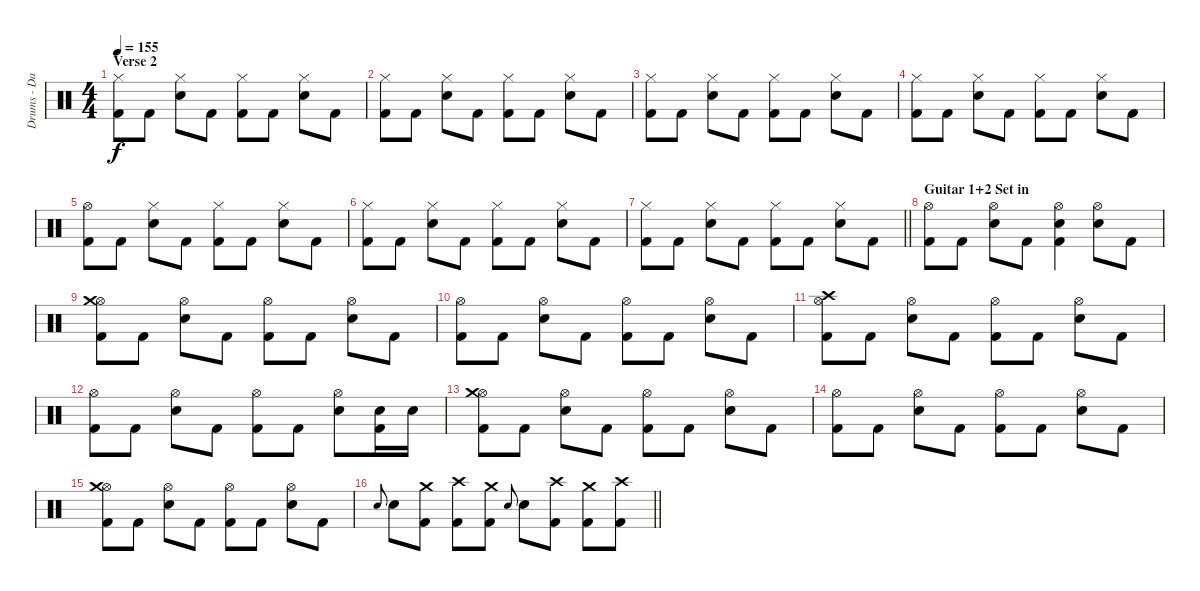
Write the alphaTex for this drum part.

\track ("Drums - Daniel Adair" "Drums - Da") {instrument percussion bank 1}
\staff {score}
\articulation defaults
\ts (4 4)
\section ("" "Verse 2")
\tempo 155
\clef neutral
\ks c
("Hi-Hat (closed)" "Kick (hit) 2").8{dy f} "Kick (hit) 2".8 ("Hi-Hat (closed)" "Snare (hit) 2").8 "Kick (hit) 2".8 ("Hi-Hat (closed)" "Kick (hit) 2").8 "Kick (hit) 2".8 ("Hi-Hat (closed)" "Snare (hit) 2").8 "Kick (hit) 2".8 |
("Hi-Hat (closed)" "Kick (hit) 2").8 "Kick (hit) 2".8 ("Hi-Hat (closed)" "Snare (hit) 2").8 "Kick (hit) 2".8 ("Hi-Hat (closed)" "Kick (hit) 2").8 "Kick (hit) 2".8 ("Hi-Hat (closed)" "Snare (hit) 2").8 "Kick (hit) 2".8 |
("Hi-Hat (closed)" "Kick (hit) 2").8 "Kick (hit) 2".8 ("Hi-Hat (closed)" "Snare (hit) 2").8 "Kick (hit) 2".8 ("Hi-Hat (closed)" "Kick (hit) 2").8 "Kick (hit) 2".8 ("Hi-Hat (closed)" "Snare (hit) 2").8 "Kick (hit) 2".8 |
("Hi-Hat (closed)" "Kick (hit) 2").8 "Kick (hit) 2".8 ("Hi-Hat (closed)" "Snare (hit) 2").8 "Kick (hit) 2".8 ("Hi-Hat (closed)" "Kick (hit) 2").8 "Kick (hit) 2".8 ("Hi-Hat (closed)" "Snare (hit) 2").8 "Kick (hit) 2".8 |
("Hi-Hat (open)" "Kick (hit) 2").8 "Kick (hit) 2".8 ("Hi-Hat (closed)" "Snare (hit) 2").8 "Kick (hit) 2".8 ("Hi-Hat (closed)" "Kick (hit) 2").8 "Kick (hit) 2".8 ("Hi-Hat (closed)" "Snare (hit) 2").8 "Kick (hit) 2".8 |
("Hi-Hat (closed)" "Kick (hit) 2").8 "Kick (hit) 2".8 ("Hi-Hat (closed)" "Snare (hit) 2").8 "Kick (hit) 2".8 ("Hi-Hat (closed)" "Kick (hit) 2").8 "Kick (hit) 2".8 ("Hi-Hat (closed)" "Snare (hit) 2").8 "Kick (hit) 2".8 |
\barLineRight lightlight
("Hi-Hat (closed)" "Kick (hit) 2").8 "Kick (hit) 2".8 ("Hi-Hat (closed)" "Snare (hit) 2").8 "Kick (hit) 2".8 ("Hi-Hat (closed)" "Kick (hit) 2").8 "Kick (hit) 2".8 ("Hi-Hat (closed)" "Snare (hit) 2").8 "Kick (hit) 2".8 |
\section ("" "Guitar 1+2 Set in")
("Hi-Hat (open)" "Kick (hit) 2").8 "Kick (hit) 2".8 ("Hi-Hat (open)" "Snare (hit) 2").8 "Kick (hit) 2".8 ("Hi-Hat (open)" "Snare (hit) 2" "Kick (hit) 2").4 ("Hi-Hat (open)" "Snare (hit) 2").8 "Kick (hit) 2".8 |
("Hi-Hat (open)" "Crash medium (hit)" "Kick (hit) 2").8 "Kick (hit) 2".8 ("Hi-Hat (open)" "Snare (hit) 2").8 "Kick (hit) 2".8 ("Hi-Hat (open)" "Kick (hit) 2").8 "Kick (hit) 2".8 ("Hi-Hat (open)" "Snare (hit) 2").8 "Kick (hit) 2".8 |
("Hi-Hat (open)" "Kick (hit) 2").8 "Kick (hit) 2".8 ("Hi-Hat (open)" "Snare (hit) 2").8 "Kick (hit) 2".8 ("Hi-Hat (open)" "Kick (hit) 2").8 "Kick (hit) 2".8 ("Hi-Hat (open)" "Snare (hit) 2").8 "Kick (hit) 2".8 |
("Hi-Hat (open)" "Crash high (hit)" "Kick (hit) 2").8 "Kick (hit) 2".8 ("Hi-Hat (open)" "Snare (hit) 2").8 "Kick (hit) 2".8 ("Hi-Hat (open)" "Kick (hit) 2").8 "Kick (hit) 2".8 ("Hi-Hat (open)" "Snare (hit) 2").8 "Kick (hit) 2".8 |
("Hi-Hat (open)" "Kick (hit) 2").8 "Kick (hit) 2".8 ("Hi-Hat (open)" "Snare (hit) 2").8 "Kick (hit) 2".8 ("Hi-Hat (open)" "Kick (hit) 2").8 "Kick (hit) 2".8 ("Hi-Hat (open)" "Snare (hit) 2").8 ("Snare (hit) 2" "Kick (hit) 2").16 "Snare (hit) 2".16 |
("Hi-Hat (open)" "Crash medium (hit)" "Kick (hit) 2").8 "Kick (hit) 2".8 ("Hi-Hat (open)" "Snare (hit) 2").8 "Kick (hit) 2".8 ("Hi-Hat (open)" "Kick (hit) 2").8 "Kick (hit) 2".8 ("Hi-Hat (open)" "Snare (hit) 2").8 "Kick (hit) 2".8 |
("Hi-Hat (open)" "Kick (hit) 2").8 "Kick (hit) 2".8 ("Hi-Hat (open)" "Snare (hit) 2").8 "Kick (hit) 2".8 ("Hi-Hat (open)" "Kick (hit) 2").8 "Kick (hit) 2".8 ("Hi-Hat (open)" "Snare (hit) 2").8 "Kick (hit) 2".8 |
("Hi-Hat (open)" "Crash medium (hit)" "Kick (hit) 2").8 "Kick (hit) 2".8 ("Hi-Hat (open)" "Snare (hit) 2").8 "Kick (hit) 2".8 ("Hi-Hat (open)" "Kick (hit) 2").8 "Kick (hit) 2".8 ("Hi-Hat (open)" "Snare (hit) 2").8 "Kick (hit) 2".8 |
\barLineRight lightlight "Snare (hit) 2".8{gr onbeat} "Snare (hit) 2".8
("Crash medium (hit)" "Kick (hit) 2").8 ("Crash high (hit)" "Kick (hit) 2").8 ("Crash medium (hit)" "Kick (hit) 2").8 "Snare (hit) 2".8{gr onbeat} "Snare (hit) 2".8 ("Crash high (hit)" "Kick (hit) 2").8 ("Crash medium (hit)" "Kick (hit) 2").8 ("Crash high (hit)" "Kick (hit) 2").8
